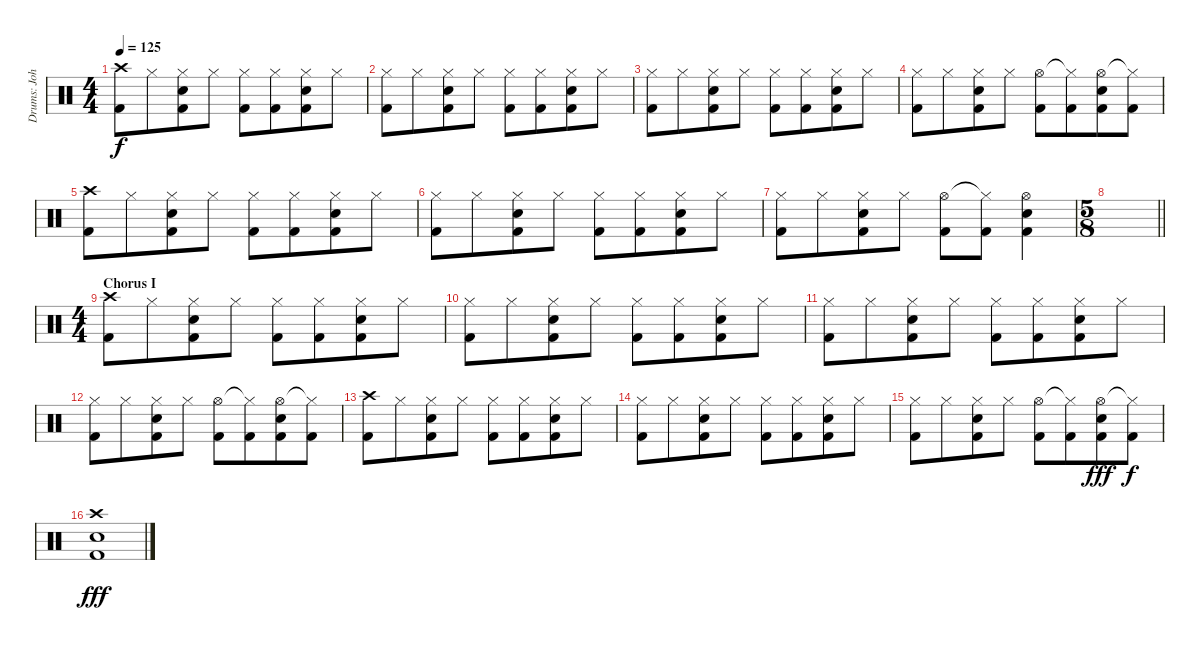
\track ("Drums: John" "Drums: Joh") {instrument percussion}
\staff {score}
\articulation defaults
\ts (4 4)
\tempo 125
\clef neutral
\ks c
("Crash high (hit)" "Kick (hit) 2").8{dy f} "Hi-Hat (closed)".8{beam merge} ("Hi-Hat (closed)" "Snare (hit) 2" "Kick (hit) 2").8 "Hi-Hat (closed)".8 ("Hi-Hat (closed)" "Kick (hit) 2").8 ("Hi-Hat (closed)" "Kick (hit) 2").8{beam merge} ("Hi-Hat (closed)" "Snare (hit) 2" "Kick (hit) 2").8 "Hi-Hat (closed)".8 |
("Hi-Hat (closed)" "Kick (hit) 2").8 "Hi-Hat (closed)".8{beam merge} ("Hi-Hat (closed)" "Snare (hit) 2" "Kick (hit) 2").8 "Hi-Hat (closed)".8 ("Hi-Hat (closed)" "Kick (hit) 2").8 ("Hi-Hat (closed)" "Kick (hit) 2").8{beam merge} ("Hi-Hat (closed)" "Snare (hit) 2" "Kick (hit) 2").8 "Hi-Hat (closed)".8 |
("Hi-Hat (closed)" "Kick (hit) 2").8 "Hi-Hat (closed)".8{beam merge} ("Hi-Hat (closed)" "Snare (hit) 2" "Kick (hit) 2").8 "Hi-Hat (closed)".8 ("Hi-Hat (closed)" "Kick (hit) 2").8 ("Hi-Hat (closed)" "Kick (hit) 2").8{beam merge} ("Hi-Hat (closed)" "Snare (hit) 2" "Kick (hit) 2").8 "Hi-Hat (closed)".8 |
("Hi-Hat (closed)" "Kick (hit) 2").8 "Hi-Hat (closed)".8{beam merge} ("Hi-Hat (closed)" "Snare (hit) 2" "Kick (hit) 2").8 "Hi-Hat (closed)".8 ("Hi-Hat (open)" "Kick (hit) 2").8 ("Hi-Hat (closed)"{t} "Kick (hit) 2").8{beam merge} ("Hi-Hat (open)" "Snare (hit) 2" "Kick (hit) 2").8 ("Hi-Hat (closed)"{t} "Kick (hit) 2").8 |
("Crash high (hit)" "Kick (hit) 2").8 "Hi-Hat (closed)".8{beam merge} ("Hi-Hat (closed)" "Snare (hit) 2" "Kick (hit) 2").8 "Hi-Hat (closed)".8 ("Hi-Hat (closed)" "Kick (hit) 2").8 ("Hi-Hat (closed)" "Kick (hit) 2").8{beam merge} ("Hi-Hat (closed)" "Snare (hit) 2" "Kick (hit) 2").8 "Hi-Hat (closed)".8 |
("Hi-Hat (closed)" "Kick (hit) 2").8 "Hi-Hat (closed)".8{beam merge} ("Hi-Hat (closed)" "Snare (hit) 2" "Kick (hit) 2").8 "Hi-Hat (closed)".8 ("Hi-Hat (closed)" "Kick (hit) 2").8 ("Hi-Hat (closed)" "Kick (hit) 2").8{beam merge} ("Hi-Hat (closed)" "Snare (hit) 2" "Kick (hit) 2").8 "Hi-Hat (closed)".8 |
("Hi-Hat (closed)" "Kick (hit) 2").8 "Hi-Hat (closed)".8{beam merge} ("Hi-Hat (closed)" "Snare (hit) 2" "Kick (hit) 2").8 "Hi-Hat (closed)".8 ("Hi-Hat (open)" "Kick (hit) 2").8 ("Hi-Hat (closed)"{t} "Kick (hit) 2").8{beam merge} ("Hi-Hat (open)" "Snare (hit) 2" "Kick (hit) 2").4 |
\ts (5 8)
\barLineRight lightlight
|
\ts (4 4)
\section ("" "Chorus I")
("Crash high (hit)" "Kick (hit) 2").8 "Hi-Hat (closed)".8{beam merge} ("Hi-Hat (closed)" "Snare (hit) 2" "Kick (hit) 2").8 "Hi-Hat (closed)".8 ("Hi-Hat (closed)" "Kick (hit) 2").8 ("Hi-Hat (closed)" "Kick (hit) 2").8{beam merge} ("Hi-Hat (closed)" "Snare (hit) 2" "Kick (hit) 2").8 "Hi-Hat (closed)".8 |
("Hi-Hat (closed)" "Kick (hit) 2").8 "Hi-Hat (closed)".8{beam merge} ("Hi-Hat (closed)" "Snare (hit) 2" "Kick (hit) 2").8 "Hi-Hat (closed)".8 ("Hi-Hat (closed)" "Kick (hit) 2").8 ("Hi-Hat (closed)" "Kick (hit) 2").8{beam merge} ("Hi-Hat (closed)" "Snare (hit) 2" "Kick (hit) 2").8 "Hi-Hat (closed)".8 |
("Hi-Hat (closed)" "Kick (hit) 2").8 "Hi-Hat (closed)".8{beam merge} ("Hi-Hat (closed)" "Snare (hit) 2" "Kick (hit) 2").8 "Hi-Hat (closed)".8 ("Hi-Hat (closed)" "Kick (hit) 2").8 ("Hi-Hat (closed)" "Kick (hit) 2").8{beam merge} ("Hi-Hat (closed)" "Snare (hit) 2" "Kick (hit) 2").8 "Hi-Hat (closed)".8 |
("Hi-Hat (closed)" "Kick (hit) 2").8 "Hi-Hat (closed)".8{beam merge} ("Hi-Hat (closed)" "Snare (hit) 2" "Kick (hit) 2").8 "Hi-Hat (closed)".8 ("Hi-Hat (open)" "Kick (hit) 2").8 ("Hi-Hat (closed)"{t} "Kick (hit) 2").8{beam merge} ("Hi-Hat (open)" "Snare (hit) 2" "Kick (hit) 2").8 ("Hi-Hat (closed)"{t} "Kick (hit) 2").8 |
("Crash high (hit)" "Kick (hit) 2").8 "Hi-Hat (closed)".8{beam merge} ("Hi-Hat (closed)" "Snare (hit) 2" "Kick (hit) 2").8 "Hi-Hat (closed)".8 ("Hi-Hat (closed)" "Kick (hit) 2").8 ("Hi-Hat (closed)" "Kick (hit) 2").8{beam merge} ("Hi-Hat (closed)" "Snare (hit) 2" "Kick (hit) 2").8 "Hi-Hat (closed)".8 |
("Hi-Hat (closed)" "Kick (hit) 2").8 "Hi-Hat (closed)".8{beam merge} ("Hi-Hat (closed)" "Snare (hit) 2" "Kick (hit) 2").8 "Hi-Hat (closed)".8 ("Hi-Hat (closed)" "Kick (hit) 2").8 ("Hi-Hat (closed)" "Kick (hit) 2").8{beam merge} ("Hi-Hat (closed)" "Snare (hit) 2" "Kick (hit) 2").8 "Hi-Hat (closed)".8 |
("Hi-Hat (closed)" "Kick (hit) 2").8 "Hi-Hat (closed)".8{beam merge} ("Hi-Hat (closed)" "Snare (hit) 2" "Kick (hit) 2").8 "Hi-Hat (closed)".8 ("Hi-Hat (open)" "Kick (hit) 2").8 ("Hi-Hat (closed)"{t} "Kick (hit) 2").8{beam merge} ("Hi-Hat (open)" "Snare (hit) 2" "Kick (hit) 2").8{dy fff} ("Hi-Hat (closed)"{t} "Kick (hit) 2").8{dy f} |
("Crash high (hit)" "Snare (hit) 2" "Kick (hit) 2").1{dy fff}
